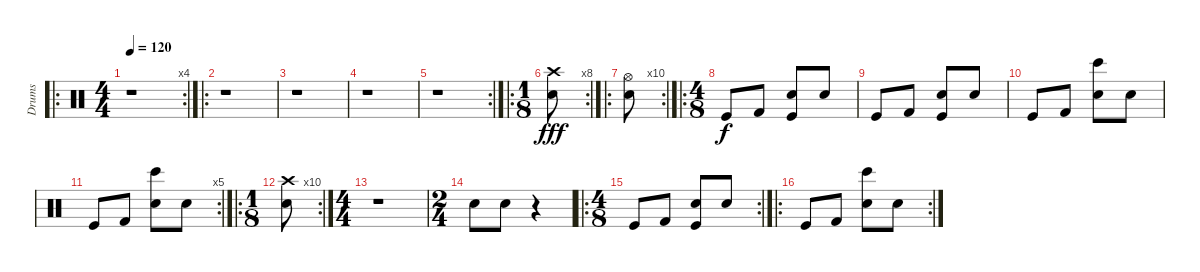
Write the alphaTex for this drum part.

\track ("Drums" "Drums") {instrument percussion}
\staff {score}
\articulation defaults
\ro
\rc 4
\ts (4 4)
\tempo 120
\clef neutral
\ks c
r.1{dy fff} |
\ro
r.1 |
r.1 |
r.1 |
\rc 2
r.1 |
\ro
\rc 8
\ts (1 8)
("Snare (hit) 2" "Crash high (hit)").8 |
\ro
\rc 10
("Snare (hit) 2" "Hi-Hat (open)").8 |
\ro
\ts (4 8)
"Kick (hit)".8{dy f} "Kick (hit) 2".8 ("Kick (hit)" "Electric Snare (hit)").8 "Snare (hit) 2".8 |
"Kick (hit)".8 "Kick (hit) 2".8 ("Kick (hit)" "Electric Snare (hit)").8 "Snare (hit) 2".8 |
"Kick (hit)".8 "Kick (hit) 2".8 ("Bongo High (hit)" "Electric Snare (hit)").8 "Snare (hit) 2".8 |
\rc 5 "Kick (hit)".8 "Kick (hit) 2".8
("Bongo High (hit)" "Electric Snare (hit)").8 "Snare (hit) 2".8 |
\ro
\rc 10
\ts (1 8)
("Snare (hit) 2" "Crash high (hit)").8 |
\ts (4 4)
r.1 |
\ts (2 4)
"Electric Snare (hit)".8 "Electric Snare (hit)".8 r.4 |
\ro
\rc 2
\ts (4 8)
"Kick (hit)".8 "Kick (hit) 2".8 ("Kick (hit)" "Electric Snare (hit)").8 "Snare (hit) 2".8 |
\ro
\rc 2 "Kick (hit)".8 "Kick (hit) 2".8
("Bongo High (hit)" "Electric Snare (hit)").8 "Snare (hit) 2".8
